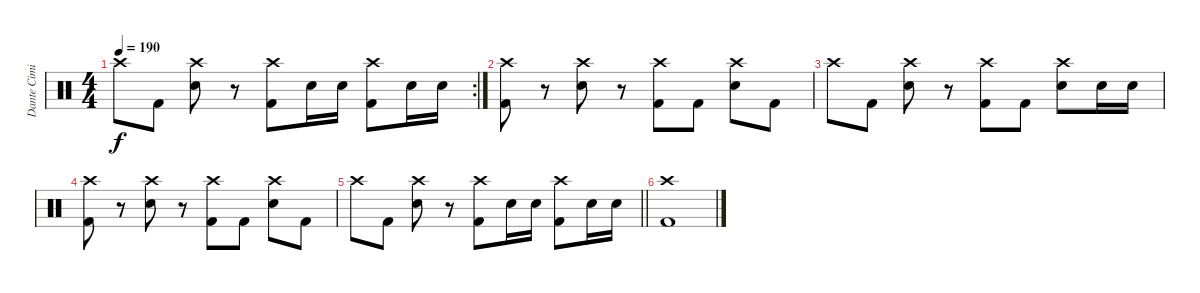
\track ("Dante Cimino" "Dante Cimi") {instrument percussion}
\staff {score}
\articulation defaults
\rc 2
\ts (4 4)
\tempo 190
\clef neutral
\ks c "Crash high (hit)".8{dy f} "Kick (hit) 2".8
("Crash high (hit)" "Electric Snare (hit)").8 r.8 ("Crash high (hit)" "Kick (hit) 2").8 "Electric Snare (hit)".16 "Electric Snare (hit)".16 ("Crash high (hit)" "Kick (hit) 2").8 "Electric Snare (hit)".16 "Electric Snare (hit)".16 |
("Crash high (hit)" "Kick (hit) 2").8 r.8 ("Crash high (hit)" "Electric Snare (hit)").8 r.8 ("Crash high (hit)" "Kick (hit) 2").8 "Kick (hit) 2".8 ("Crash high (hit)" "Electric Snare (hit)").8 "Kick (hit) 2".8 |
"Crash high (hit)".8 "Kick (hit) 2".8 ("Crash high (hit)" "Electric Snare (hit)").8 r.8 ("Crash high (hit)" "Kick (hit) 2").8 "Kick (hit) 2".8 ("Crash high (hit)" "Electric Snare (hit)").8 "Electric Snare (hit)".16 "Electric Snare (hit)".16 |
("Crash high (hit)" "Kick (hit) 2").8 r.8 ("Crash high (hit)" "Electric Snare (hit)").8 r.8 ("Crash high (hit)" "Kick (hit) 2").8 "Kick (hit) 2".8 ("Crash high (hit)" "Electric Snare (hit)").8 "Kick (hit) 2".8 |
\barLineRight lightlight "Crash high (hit)".8 "Kick (hit) 2".8
("Crash high (hit)" "Electric Snare (hit)").8 r.8 ("Crash high (hit)" "Kick (hit) 2").8 "Electric Snare (hit)".16 "Electric Snare (hit)".16 ("Crash high (hit)" "Kick (hit) 2").8 "Electric Snare (hit)".16 "Electric Snare (hit)".16 |
("Crash high (hit)" "Kick (hit) 2").1
